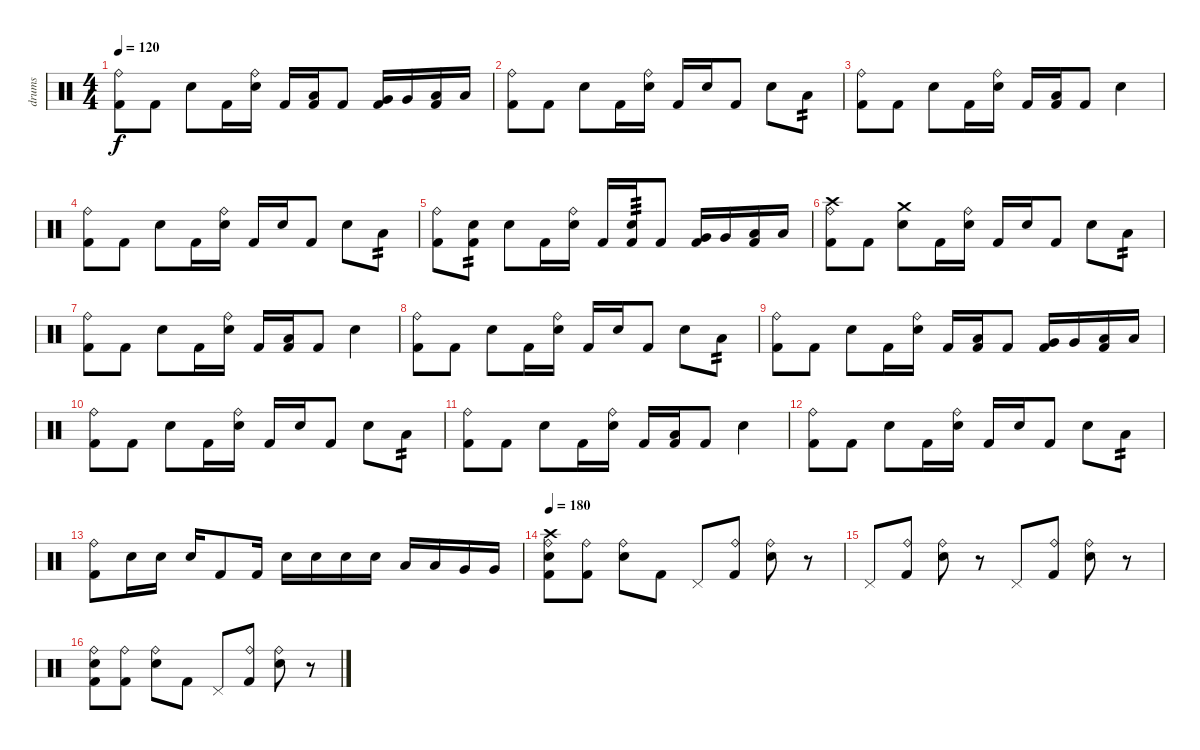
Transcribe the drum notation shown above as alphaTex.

\track ("drums" "drums") {instrument percussion}
\staff {score}
\articulation defaults
\ts (4 4)
\tempo 120
\clef neutral
\ks c
("Ride (bell)" "Kick (hit) 2").8{dy f} "Kick (hit) 2".8 "Electric Snare (hit)".8 "Kick (hit) 2".16 ("Ride (bell)" "Electric Snare (hit)").16 "Kick (hit) 2".16 ("Low Tom (hit)" "Kick (hit) 2").16 "Kick (hit) 2".8 ("Very Low Tom (hit)" "Kick (hit) 2").16 "Very Low Tom (hit)".16 ("Low Floor Tom (hit)" "Kick (hit) 2").16 "Low Floor Tom (hit)".16 |
("Ride (bell)" "Kick (hit) 2").8 "Kick (hit) 2".8 "Electric Snare (hit)".8 "Kick (hit) 2".16 ("Ride (bell)" "Electric Snare (hit)").16 "Kick (hit) 2".16 "Electric Snare (hit)".16 "Kick (hit) 2".8 "Electric Snare (hit)".8 "Low Tom (hit)".8{tp 2} |
("Ride (bell)" "Kick (hit) 2").8 "Kick (hit) 2".8 "Electric Snare (hit)".8 "Kick (hit) 2".16 ("Ride (bell)" "Electric Snare (hit)").16 "Kick (hit) 2".16 ("Low Tom (hit)" "Kick (hit) 2").16 "Kick (hit) 2".8 "Electric Snare (hit)".4 |
("Ride (bell)" "Kick (hit) 2").8 "Kick (hit) 2".8 "Electric Snare (hit)".8 "Kick (hit) 2".16 ("Ride (bell)" "Electric Snare (hit)").16 "Kick (hit) 2".16 "Electric Snare (hit)".16 "Kick (hit) 2".8 "Electric Snare (hit)".8 "Low Tom (hit)".8{tp 2} |
("Ride (bell)" "Kick (hit) 2").8 ("Electric Snare (hit)" "Kick (hit) 2").8{tp 2} "Electric Snare (hit)".8 "Kick (hit) 2".16 ("Ride (bell)" "Electric Snare (hit)").16 "Kick (hit) 2".16 ("Electric Snare (hit)" "Kick (hit) 2").16{tp 3} "Kick (hit) 2".8 ("Very Low Tom (hit)" "Kick (hit) 2").16 "Very Low Tom (hit)".16 ("Low Floor Tom (hit)" "Kick (hit) 2").16 "Low Floor Tom (hit)".16 |
("Ride (bell)" "Crash high (hit)" "Kick (hit) 2").8 "Kick (hit) 2".8 ("Crash medium (hit)" "Electric Snare (hit)").8 "Kick (hit) 2".16 ("Ride (bell)" "Electric Snare (hit)").16 "Kick (hit) 2".16 "Electric Snare (hit)".16 "Kick (hit) 2".8 "Electric Snare (hit)".8 "Low Tom (hit)".8{tp 2} |
("Ride (bell)" "Kick (hit) 2").8 "Kick (hit) 2".8 "Electric Snare (hit)".8 "Kick (hit) 2".16 ("Ride (bell)" "Electric Snare (hit)").16 "Kick (hit) 2".16 ("Low Tom (hit)" "Kick (hit) 2").16 "Kick (hit) 2".8 "Electric Snare (hit)".4 |
("Ride (bell)" "Kick (hit) 2").8 "Kick (hit) 2".8 "Electric Snare (hit)".8 "Kick (hit) 2".16 ("Ride (bell)" "Electric Snare (hit)").16 "Kick (hit) 2".16 "Electric Snare (hit)".16 "Kick (hit) 2".8 "Electric Snare (hit)".8 "Low Tom (hit)".8{tp 2} |
("Ride (bell)" "Kick (hit) 2").8 "Kick (hit) 2".8 "Electric Snare (hit)".8 "Kick (hit) 2".16 ("Ride (bell)" "Electric Snare (hit)").16 "Kick (hit) 2".16 ("Low Tom (hit)" "Kick (hit) 2").16 "Kick (hit) 2".8 ("Very Low Tom (hit)" "Kick (hit) 2").16 "Very Low Tom (hit)".16 ("Low Floor Tom (hit)" "Kick (hit) 2").16 "Low Floor Tom (hit)".16 |
("Ride (bell)" "Kick (hit) 2").8 "Kick (hit) 2".8 "Electric Snare (hit)".8 "Kick (hit) 2".16 ("Ride (bell)" "Electric Snare (hit)").16 "Kick (hit) 2".16 "Electric Snare (hit)".16 "Kick (hit) 2".8 "Electric Snare (hit)".8 "Low Tom (hit)".8{tp 2} |
("Ride (bell)" "Kick (hit) 2").8 "Kick (hit) 2".8 "Electric Snare (hit)".8 "Kick (hit) 2".16 ("Ride (bell)" "Electric Snare (hit)").16 "Kick (hit) 2".16 ("Low Tom (hit)" "Kick (hit) 2").16 "Kick (hit) 2".8 "Electric Snare (hit)".4 |
("Ride (bell)" "Kick (hit) 2").8 "Kick (hit) 2".8 "Electric Snare (hit)".8 "Kick (hit) 2".16 ("Ride (bell)" "Electric Snare (hit)").16 "Kick (hit) 2".16 "Electric Snare (hit)".16 "Kick (hit) 2".8 "Electric Snare (hit)".8 "Low Tom (hit)".8{tp 2} |
("Ride (bell)" "Kick (hit) 2").8 "Electric Snare (hit)".16 "Electric Snare (hit)".16 "Electric Snare (hit)".16 "Kick (hit) 2".8 "Kick (hit) 2".16 "Electric Snare (hit)".16 "Electric Snare (hit)".16 "Electric Snare (hit)".16 "Electric Snare (hit)".16 "Low Tom (hit)".16 "Low Tom (hit)".16 "Very Low Tom (hit)".16 "Very Low Tom (hit)".16 |
\tempo 180
("Crash high (hit)" "Ride (bell)" "Electric Snare (hit)" "Kick (hit) 2").8 ("Ride (bell)" "Kick (hit) 2").8 ("Ride (bell)" "Electric Snare (hit)").8 "Kick (hit) 2".8 "Pedal Hi-Hat (hit)".8 ("Ride (bell)" "Kick (hit) 2").8 ("Ride (bell)" "Electric Snare (hit)").8 r.8 |
"Pedal Hi-Hat (hit)".8 ("Ride (bell)" "Kick (hit) 2").8 ("Ride (bell)" "Electric Snare (hit)").8 r.8 "Pedal Hi-Hat (hit)".8 ("Ride (bell)" "Kick (hit) 2").8 ("Ride (bell)" "Electric Snare (hit)").8 r.8 |
("Ride (bell)" "Electric Snare (hit)" "Kick (hit) 2").8 ("Ride (bell)" "Kick (hit) 2").8 ("Ride (bell)" "Electric Snare (hit)").8 "Kick (hit) 2".8 "Pedal Hi-Hat (hit)".8 ("Ride (bell)" "Kick (hit) 2").8 ("Ride (bell)" "Electric Snare (hit)").8 r.8
